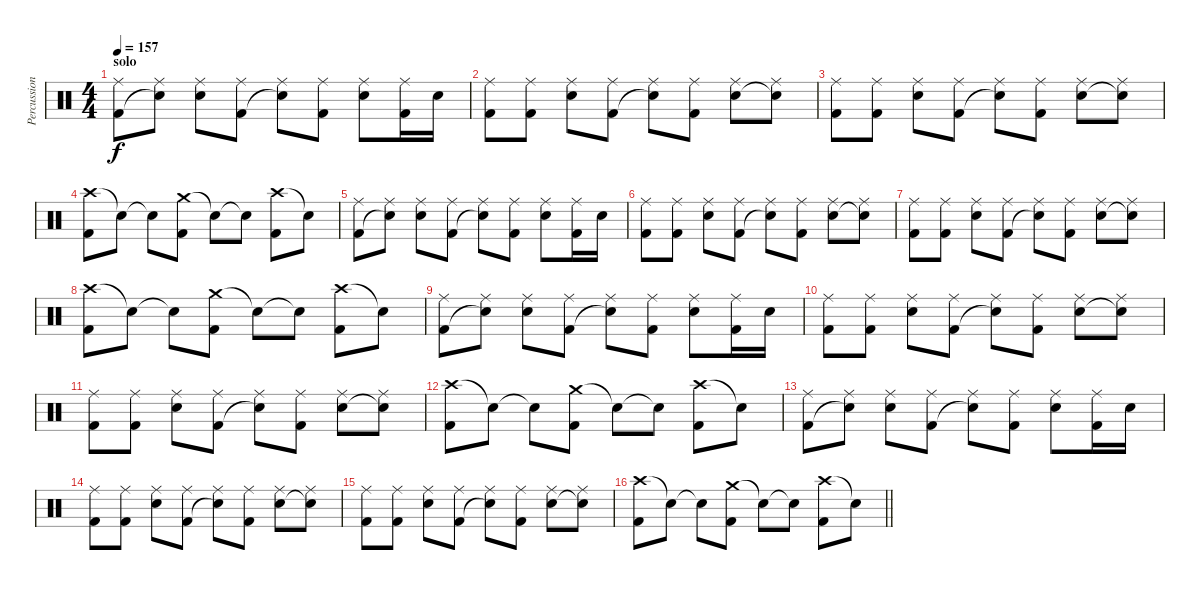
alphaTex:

\track ("Percussion" "Percussion") {instrument percussion}
\staff {score}
\articulation defaults
\ts (4 4)
\section ("" "solo")
\tempo 157
\clef neutral
\ks c
("Ride (middle)" "Kick (hit) 2").8{dy f} ("Ride (middle)" "Snare (hit)"{t}).8 ("Ride (middle)" "Electric Snare (hit)").8 ("Ride (middle)" "Kick (hit) 2").8 ("Ride (middle)" "Snare (hit)"{t}).8 ("Ride (middle)" "Kick (hit) 2").8 ("Ride (middle)" "Electric Snare (hit)").8 ("Ride (middle)" "Kick (hit) 2").16 "Electric Snare (hit)".16 |
("Ride (middle)" "Kick (hit) 2").8 ("Ride (middle)" "Kick (hit) 2").8 ("Ride (middle)" "Electric Snare (hit)").8 ("Ride (middle)" "Kick (hit) 2").8 ("Ride (middle)" "Snare (hit)"{t}).8 ("Ride (middle)" "Kick (hit) 2").8 ("Ride (middle)" "Electric Snare (hit)").8 ("Ride (middle)" "Snare (hit)"{t}).8 |
("Ride (middle)" "Kick (hit) 2").8 ("Ride (middle)" "Kick (hit) 2").8 ("Ride (middle)" "Electric Snare (hit)").8 ("Ride (middle)" "Kick (hit) 2").8 ("Ride (middle)" "Snare (hit)"{t}).8 ("Ride (middle)" "Kick (hit) 2").8 ("Ride (middle)" "Electric Snare (hit)").8 ("Ride (middle)" "Snare (hit)"{t}).8 |
("Crash high (hit)" "Kick (hit) 2").8 "Snare (hit)"{t}.8 "Snare (hit)"{t}.8 ("Crash medium (hit)" "Kick (hit) 2").8 "Snare (hit)"{t}.8 "Snare (hit)"{t}.8 ("Crash high (hit)" "Kick (hit) 2").8 "Snare (hit)"{t}.8 |
("Ride (middle)" "Kick (hit) 2").8 ("Ride (middle)" "Snare (hit)"{t}).8 ("Ride (middle)" "Electric Snare (hit)").8 ("Ride (middle)" "Kick (hit) 2").8 ("Ride (middle)" "Snare (hit)"{t}).8 ("Ride (middle)" "Kick (hit) 2").8 ("Ride (middle)" "Electric Snare (hit)").8 ("Ride (middle)" "Kick (hit) 2").16 "Electric Snare (hit)".16 |
("Ride (middle)" "Kick (hit) 2").8 ("Ride (middle)" "Kick (hit) 2").8 ("Ride (middle)" "Electric Snare (hit)").8 ("Ride (middle)" "Kick (hit) 2").8 ("Ride (middle)" "Snare (hit)"{t}).8 ("Ride (middle)" "Kick (hit) 2").8 ("Ride (middle)" "Electric Snare (hit)").8 ("Ride (middle)" "Snare (hit)"{t}).8 |
("Ride (middle)" "Kick (hit) 2").8 ("Ride (middle)" "Kick (hit) 2").8 ("Ride (middle)" "Electric Snare (hit)").8 ("Ride (middle)" "Kick (hit) 2").8 ("Ride (middle)" "Snare (hit)"{t}).8 ("Ride (middle)" "Kick (hit) 2").8 ("Ride (middle)" "Electric Snare (hit)").8 ("Ride (middle)" "Snare (hit)"{t}).8 |
("Crash high (hit)" "Kick (hit) 2").8 "Snare (hit)"{t}.8 "Snare (hit)"{t}.8 ("Crash medium (hit)" "Kick (hit) 2").8 "Snare (hit)"{t}.8 "Snare (hit)"{t}.8 ("Crash high (hit)" "Kick (hit) 2").8 "Snare (hit)"{t}.8 |
("Ride (middle)" "Kick (hit) 2").8 ("Ride (middle)" "Snare (hit)"{t}).8 ("Ride (middle)" "Electric Snare (hit)").8 ("Ride (middle)" "Kick (hit) 2").8 ("Ride (middle)" "Snare (hit)"{t}).8 ("Ride (middle)" "Kick (hit) 2").8 ("Ride (middle)" "Electric Snare (hit)").8 ("Ride (middle)" "Kick (hit) 2").16 "Electric Snare (hit)".16 |
("Ride (middle)" "Kick (hit) 2").8 ("Ride (middle)" "Kick (hit) 2").8 ("Ride (middle)" "Electric Snare (hit)").8 ("Ride (middle)" "Kick (hit) 2").8 ("Ride (middle)" "Snare (hit)"{t}).8 ("Ride (middle)" "Kick (hit) 2").8 ("Ride (middle)" "Electric Snare (hit)").8 ("Ride (middle)" "Snare (hit)"{t}).8 |
("Ride (middle)" "Kick (hit) 2").8 ("Ride (middle)" "Kick (hit) 2").8 ("Ride (middle)" "Electric Snare (hit)").8 ("Ride (middle)" "Kick (hit) 2").8 ("Ride (middle)" "Snare (hit)"{t}).8 ("Ride (middle)" "Kick (hit) 2").8 ("Ride (middle)" "Electric Snare (hit)").8 ("Ride (middle)" "Snare (hit)"{t}).8 |
("Crash high (hit)" "Kick (hit) 2").8 "Snare (hit)"{t}.8 "Snare (hit)"{t}.8 ("Crash medium (hit)" "Kick (hit) 2").8 "Snare (hit)"{t}.8 "Snare (hit)"{t}.8 ("Crash high (hit)" "Kick (hit) 2").8 "Snare (hit)"{t}.8 |
("Ride (middle)" "Kick (hit) 2").8 ("Ride (middle)" "Snare (hit)"{t}).8 ("Ride (middle)" "Electric Snare (hit)").8 ("Ride (middle)" "Kick (hit) 2").8 ("Ride (middle)" "Snare (hit)"{t}).8 ("Ride (middle)" "Kick (hit) 2").8 ("Ride (middle)" "Electric Snare (hit)").8 ("Ride (middle)" "Kick (hit) 2").16 "Electric Snare (hit)".16 |
("Ride (middle)" "Kick (hit) 2").8 ("Ride (middle)" "Kick (hit) 2").8 ("Ride (middle)" "Electric Snare (hit)").8 ("Ride (middle)" "Kick (hit) 2").8 ("Ride (middle)" "Snare (hit)"{t}).8 ("Ride (middle)" "Kick (hit) 2").8 ("Ride (middle)" "Electric Snare (hit)").8 ("Ride (middle)" "Snare (hit)"{t}).8 |
("Ride (middle)" "Kick (hit) 2").8 ("Ride (middle)" "Kick (hit) 2").8 ("Ride (middle)" "Electric Snare (hit)").8 ("Ride (middle)" "Kick (hit) 2").8 ("Ride (middle)" "Snare (hit)"{t}).8 ("Ride (middle)" "Kick (hit) 2").8 ("Ride (middle)" "Electric Snare (hit)").8 ("Ride (middle)" "Snare (hit)"{t}).8 |
\barLineRight lightlight
("Crash high (hit)" "Kick (hit) 2").8 "Snare (hit)"{t}.8 "Snare (hit)"{t}.8 ("Crash medium (hit)" "Kick (hit) 2").8 "Snare (hit)"{t}.8 "Snare (hit)"{t}.8 ("Crash high (hit)" "Kick (hit) 2").8 "Snare (hit)"{t}.8
